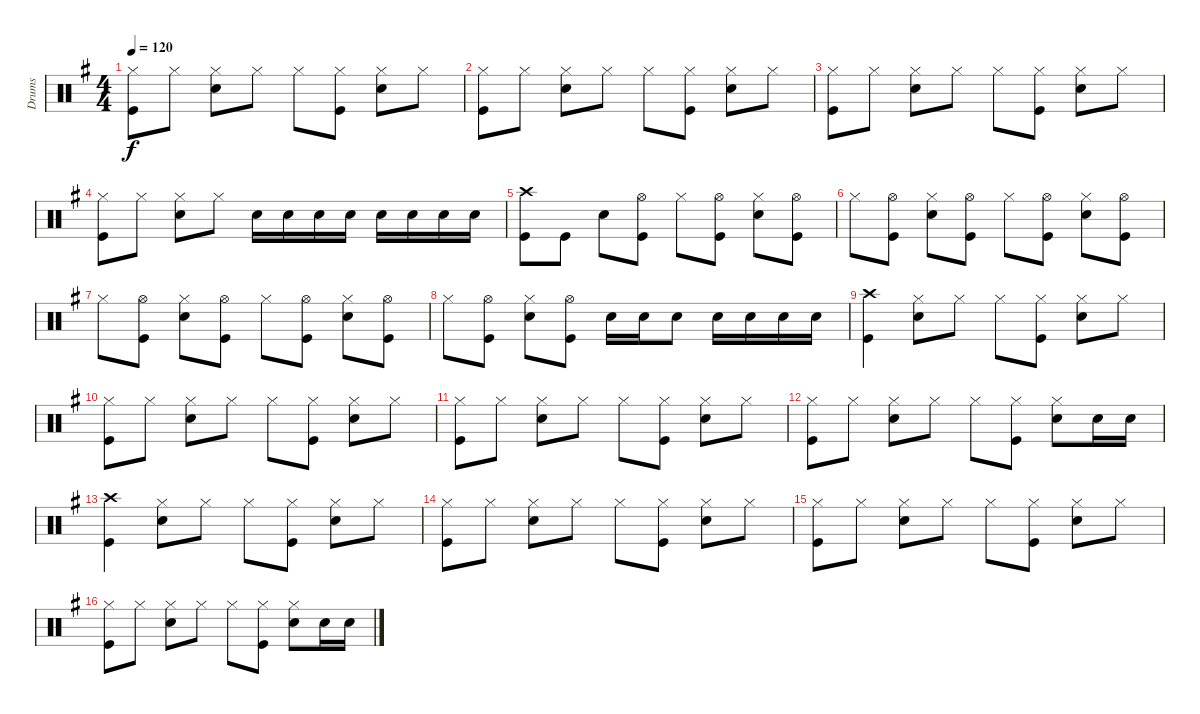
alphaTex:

\track ("Drums" "Drums") {instrument percussion}
\staff {score}
\articulation defaults
\ts (4 4)
\tempo 120
\clef neutral
\ks g
("Hi-Hat (closed)" "Kick (hit)").8{dy f} "Hi-Hat (closed)".8 ("Hi-Hat (closed)" "Snare (hit) 2").8 "Hi-Hat (closed)".8 "Hi-Hat (closed)".8 ("Hi-Hat (closed)" "Kick (hit)").8 ("Hi-Hat (closed)" "Snare (hit) 2").8 "Hi-Hat (closed)".8 |
("Hi-Hat (closed)" "Kick (hit)").8 "Hi-Hat (closed)".8 ("Hi-Hat (closed)" "Snare (hit) 2").8 "Hi-Hat (closed)".8 "Hi-Hat (closed)".8 ("Hi-Hat (closed)" "Kick (hit)").8 ("Hi-Hat (closed)" "Snare (hit) 2").8 "Hi-Hat (closed)".8 |
("Hi-Hat (closed)" "Kick (hit)").8 "Hi-Hat (closed)".8 ("Hi-Hat (closed)" "Snare (hit) 2").8 "Hi-Hat (closed)".8 "Hi-Hat (closed)".8 ("Hi-Hat (closed)" "Kick (hit)").8 ("Hi-Hat (closed)" "Snare (hit) 2").8 "Hi-Hat (closed)".8 |
("Hi-Hat (closed)" "Kick (hit)").8 "Hi-Hat (closed)".8 ("Hi-Hat (closed)" "Snare (hit) 2").8 "Hi-Hat (closed)".8 "Snare (hit) 2".16 "Snare (hit) 2".16 "Snare (hit) 2".16 "Snare (hit) 2".16 "Snare (hit) 2".16 "Snare (hit) 2".16 "Snare (hit) 2".16 "Snare (hit) 2".16 |
("Crash high (hit)" "Kick (hit)").8 "Kick (hit)".8 "Snare (hit) 2".8 ("Hi-Hat (open)" "Kick (hit)").8 "Hi-Hat (closed)".8 ("Hi-Hat (open)" "Kick (hit)").8 ("Hi-Hat (closed)" "Snare (hit) 2").8 ("Hi-Hat (open)" "Kick (hit)").8 |
"Hi-Hat (closed)".8 ("Hi-Hat (open)" "Kick (hit)").8 ("Hi-Hat (closed)" "Snare (hit) 2").8 ("Hi-Hat (open)" "Kick (hit)").8 "Hi-Hat (closed)".8 ("Hi-Hat (open)" "Kick (hit)").8 ("Hi-Hat (closed)" "Snare (hit) 2").8 ("Hi-Hat (open)" "Kick (hit)").8 |
"Hi-Hat (closed)".8 ("Hi-Hat (open)" "Kick (hit)").8 ("Hi-Hat (closed)" "Snare (hit) 2").8 ("Hi-Hat (open)" "Kick (hit)").8 "Hi-Hat (closed)".8 ("Hi-Hat (open)" "Kick (hit)").8 ("Hi-Hat (closed)" "Snare (hit) 2").8 ("Hi-Hat (open)" "Kick (hit)").8 |
"Hi-Hat (closed)".8 ("Hi-Hat (open)" "Kick (hit)").8 ("Hi-Hat (closed)" "Snare (hit) 2").8 ("Hi-Hat (open)" "Kick (hit)").8 "Snare (hit) 2".16 "Snare (hit) 2".16 "Snare (hit) 2".8 "Snare (hit) 2".16 "Snare (hit) 2".16 "Snare (hit) 2".16 "Snare (hit) 2".16 |
("Crash high (hit)" "Kick (hit)").4 ("Hi-Hat (closed)" "Snare (hit) 2").8 "Hi-Hat (closed)".8 "Hi-Hat (closed)".8 ("Hi-Hat (closed)" "Kick (hit)").8 ("Hi-Hat (closed)" "Snare (hit) 2").8 "Hi-Hat (closed)".8 |
("Hi-Hat (closed)" "Kick (hit)").8 "Hi-Hat (closed)".8 ("Hi-Hat (closed)" "Snare (hit) 2").8 "Hi-Hat (closed)".8 "Hi-Hat (closed)".8 ("Hi-Hat (closed)" "Kick (hit)").8 ("Hi-Hat (closed)" "Snare (hit) 2").8 "Hi-Hat (closed)".8 |
("Hi-Hat (closed)" "Kick (hit)").8 "Hi-Hat (closed)".8 ("Hi-Hat (closed)" "Snare (hit) 2").8 "Hi-Hat (closed)".8 "Hi-Hat (closed)".8 ("Hi-Hat (closed)" "Kick (hit)").8 ("Hi-Hat (closed)" "Snare (hit) 2").8 "Hi-Hat (closed)".8 |
("Hi-Hat (closed)" "Kick (hit)").8 "Hi-Hat (closed)".8 ("Hi-Hat (closed)" "Snare (hit) 2").8 "Hi-Hat (closed)".8 "Hi-Hat (closed)".8 ("Hi-Hat (closed)" "Kick (hit)").8 ("Hi-Hat (closed)" "Snare (hit) 2").8 "Snare (hit) 2".16 "Snare (hit) 2".16 |
("Crash high (hit)" "Kick (hit)").4 ("Hi-Hat (closed)" "Snare (hit) 2").8 "Hi-Hat (closed)".8 "Hi-Hat (closed)".8 ("Hi-Hat (closed)" "Kick (hit)").8 ("Hi-Hat (closed)" "Snare (hit) 2").8 "Hi-Hat (closed)".8 |
("Hi-Hat (closed)" "Kick (hit)").8 "Hi-Hat (closed)".8 ("Hi-Hat (closed)" "Snare (hit) 2").8 "Hi-Hat (closed)".8 "Hi-Hat (closed)".8 ("Hi-Hat (closed)" "Kick (hit)").8 ("Hi-Hat (closed)" "Snare (hit) 2").8 "Hi-Hat (closed)".8 |
("Hi-Hat (closed)" "Kick (hit)").8 "Hi-Hat (closed)".8 ("Hi-Hat (closed)" "Snare (hit) 2").8 "Hi-Hat (closed)".8 "Hi-Hat (closed)".8 ("Hi-Hat (closed)" "Kick (hit)").8 ("Hi-Hat (closed)" "Snare (hit) 2").8 "Hi-Hat (closed)".8 |
("Hi-Hat (closed)" "Kick (hit)").8 "Hi-Hat (closed)".8 ("Hi-Hat (closed)" "Snare (hit) 2").8 "Hi-Hat (closed)".8 "Hi-Hat (closed)".8 ("Hi-Hat (closed)" "Kick (hit)").8 ("Hi-Hat (closed)" "Snare (hit) 2").8 "Snare (hit) 2".16 "Snare (hit) 2".16
